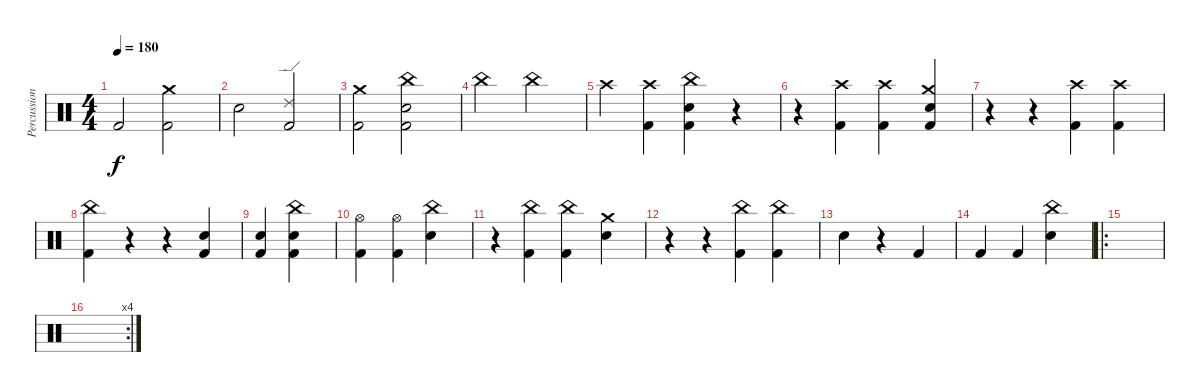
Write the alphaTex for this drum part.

\track ("Percussion" "Percussion") {instrument percussion}
\staff {score}
\articulation defaults
\ts (4 4)
\tempo 180
\clef neutral
\ks c "Kick (hit) 2".2{dy f}
("Kick (hit) 2" "Crash medium (hit)").2 |
"Electric Snare (hit)".2 ("Kick (hit) 2" "Ride (edge) 2").2 |
("Kick (hit) 2" "Crash medium (hit)").2 ("Kick (hit) 2" "Snare (hit) 2" "China (hit)").2 |
"China (hit)".2 "China (hit)".2 |
"Crash high (hit)".4 ("Kick (hit) 2" "Crash high (hit)").4 ("Kick (hit) 2" "Snare (hit) 2" "China (hit)").4 r.4 |
r.4 ("Kick (hit) 2" "Crash high (hit)").4 ("Kick (hit) 2" "Crash high (hit)").4 ("Kick (hit) 2" "Snare (hit) 2" "Crash medium (hit)").4 |
r.4 r.4 ("Kick (hit) 2" "Crash high (hit)").4 ("Kick (hit) 2" "Crash high (hit)").4 |
("Kick (hit) 2" "China (hit)").4 r.4 r.4 ("Kick (hit) 2" "Snare (hit) 2").4 |
("Kick (hit) 2" "Snare (hit) 2").4 ("Kick (hit) 2" "Electric Snare (hit)" "China (hit)").4 |
("Kick (hit) 2" "Hi-Hat (open)").4 ("Kick (hit) 2" "Hi-Hat (open)").4 ("Snare (hit) 2" "China (hit)").4 |
r.4 ("Kick (hit) 2" "China (hit)").4 ("Kick (hit) 2" "China (hit)").4 ("Electric Snare (hit)" "Crash medium (hit)").4 |
r.4 r.4 ("Kick (hit) 2" "China (hit)").4 ("Kick (hit) 2" "China (hit)").4 |
"Snare (hit) 2".4 r.4 "Kick (hit) 2".4 |
"Kick (hit) 2".4 "Kick (hit) 2".4 ("Snare (hit) 2" "China (hit)").4 |
\ro
|
\rc 4
